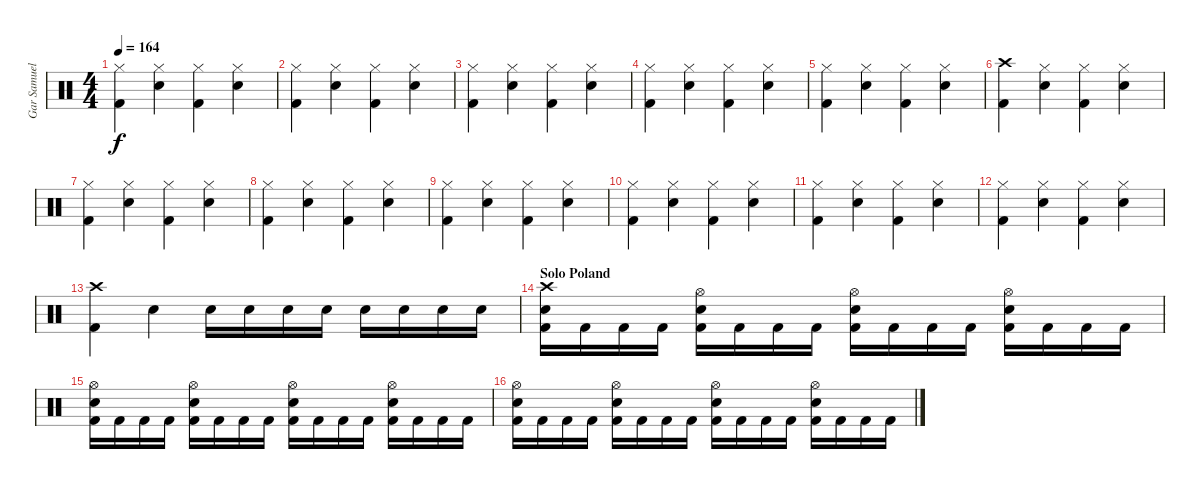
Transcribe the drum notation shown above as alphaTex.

\track ("Gar Samuelson (Drums)" "Gar Samuel") {instrument percussion}
\staff {score}
\articulation defaults
\ts (4 4)
\tempo 164
\clef neutral
\ks c
("Hi-Hat (closed)" "Kick (hit) 2").4{dy f} ("Hi-Hat (closed)" "Electric Snare (hit)").4 ("Hi-Hat (closed)" "Kick (hit) 2").4 ("Hi-Hat (closed)" "Electric Snare (hit)").4 |
("Hi-Hat (closed)" "Kick (hit) 2").4 ("Hi-Hat (closed)" "Electric Snare (hit)").4 ("Hi-Hat (closed)" "Kick (hit) 2").4 ("Hi-Hat (closed)" "Electric Snare (hit)").4 |
("Hi-Hat (closed)" "Kick (hit) 2").4 ("Hi-Hat (closed)" "Electric Snare (hit)").4 ("Hi-Hat (closed)" "Kick (hit) 2").4 ("Hi-Hat (closed)" "Electric Snare (hit)").4 |
("Hi-Hat (closed)" "Kick (hit) 2").4 ("Hi-Hat (closed)" "Electric Snare (hit)").4 ("Hi-Hat (closed)" "Kick (hit) 2").4 ("Hi-Hat (closed)" "Electric Snare (hit)").4 |
("Hi-Hat (closed)" "Kick (hit) 2").4 ("Hi-Hat (closed)" "Electric Snare (hit)").4 ("Hi-Hat (closed)" "Kick (hit) 2").4 ("Hi-Hat (closed)" "Electric Snare (hit)").4 |
("Crash high (hit)" "Kick (hit) 2").4 ("Hi-Hat (closed)" "Electric Snare (hit)").4 ("Hi-Hat (closed)" "Kick (hit) 2").4 ("Hi-Hat (closed)" "Electric Snare (hit)").4 |
("Hi-Hat (closed)" "Kick (hit) 2").4 ("Hi-Hat (closed)" "Electric Snare (hit)").4 ("Hi-Hat (closed)" "Kick (hit) 2").4 ("Hi-Hat (closed)" "Electric Snare (hit)").4 |
("Hi-Hat (closed)" "Kick (hit) 2").4 ("Hi-Hat (closed)" "Electric Snare (hit)").4 ("Hi-Hat (closed)" "Kick (hit) 2").4 ("Hi-Hat (closed)" "Electric Snare (hit)").4 |
("Hi-Hat (closed)" "Kick (hit) 2").4 ("Hi-Hat (closed)" "Electric Snare (hit)").4 ("Hi-Hat (closed)" "Kick (hit) 2").4 ("Hi-Hat (closed)" "Electric Snare (hit)").4 |
("Hi-Hat (closed)" "Kick (hit) 2").4 ("Hi-Hat (closed)" "Electric Snare (hit)").4 ("Hi-Hat (closed)" "Kick (hit) 2").4 ("Hi-Hat (closed)" "Electric Snare (hit)").4 |
("Hi-Hat (closed)" "Kick (hit) 2").4 ("Hi-Hat (closed)" "Electric Snare (hit)").4 ("Hi-Hat (closed)" "Kick (hit) 2").4 ("Hi-Hat (closed)" "Electric Snare (hit)").4 |
("Hi-Hat (closed)" "Kick (hit) 2").4 ("Hi-Hat (closed)" "Electric Snare (hit)").4 ("Hi-Hat (closed)" "Kick (hit) 2").4 ("Hi-Hat (closed)" "Electric Snare (hit)").4 |
("Crash high (hit)" "Kick (hit) 2").4 "Electric Snare (hit)".4 "Electric Snare (hit)".16 "Electric Snare (hit)".16 "Electric Snare (hit)".16 "Electric Snare (hit)".16 "Electric Snare (hit)".16 "Electric Snare (hit)".16 "Electric Snare (hit)".16 "Electric Snare (hit)".16 |
\section ("" "Solo Poland")
("Crash high (hit)" "Electric Snare (hit)" "Kick (hit) 2").16 "Kick (hit) 2".16 "Kick (hit) 2".16 "Kick (hit) 2".16 ("Hi-Hat (open)" "Electric Snare (hit)" "Kick (hit) 2").16 "Kick (hit) 2".16 "Kick (hit) 2".16 "Kick (hit) 2".16 ("Hi-Hat (open)" "Electric Snare (hit)" "Kick (hit) 2").16 "Kick (hit) 2".16 "Kick (hit) 2".16 "Kick (hit) 2".16 ("Hi-Hat (open)" "Electric Snare (hit)" "Kick (hit) 2").16 "Kick (hit) 2".16 "Kick (hit) 2".16 "Kick (hit) 2".16 |
("Hi-Hat (open)" "Electric Snare (hit)" "Kick (hit) 2").16 "Kick (hit) 2".16 "Kick (hit) 2".16 "Kick (hit) 2".16 ("Hi-Hat (open)" "Electric Snare (hit)" "Kick (hit) 2").16 "Kick (hit) 2".16 "Kick (hit) 2".16 "Kick (hit) 2".16 ("Hi-Hat (open)" "Electric Snare (hit)" "Kick (hit) 2").16 "Kick (hit) 2".16 "Kick (hit) 2".16 "Kick (hit) 2".16 ("Hi-Hat (open)" "Electric Snare (hit)" "Kick (hit) 2").16 "Kick (hit) 2".16 "Kick (hit) 2".16 "Kick (hit) 2".16 |
("Hi-Hat (open)" "Electric Snare (hit)" "Kick (hit) 2").16 "Kick (hit) 2".16 "Kick (hit) 2".16 "Kick (hit) 2".16 ("Hi-Hat (open)" "Electric Snare (hit)" "Kick (hit) 2").16 "Kick (hit) 2".16 "Kick (hit) 2".16 "Kick (hit) 2".16 ("Hi-Hat (open)" "Electric Snare (hit)" "Kick (hit) 2").16 "Kick (hit) 2".16 "Kick (hit) 2".16 "Kick (hit) 2".16 ("Hi-Hat (open)" "Electric Snare (hit)" "Kick (hit) 2").16 "Kick (hit) 2".16 "Kick (hit) 2".16 "Kick (hit) 2".16
